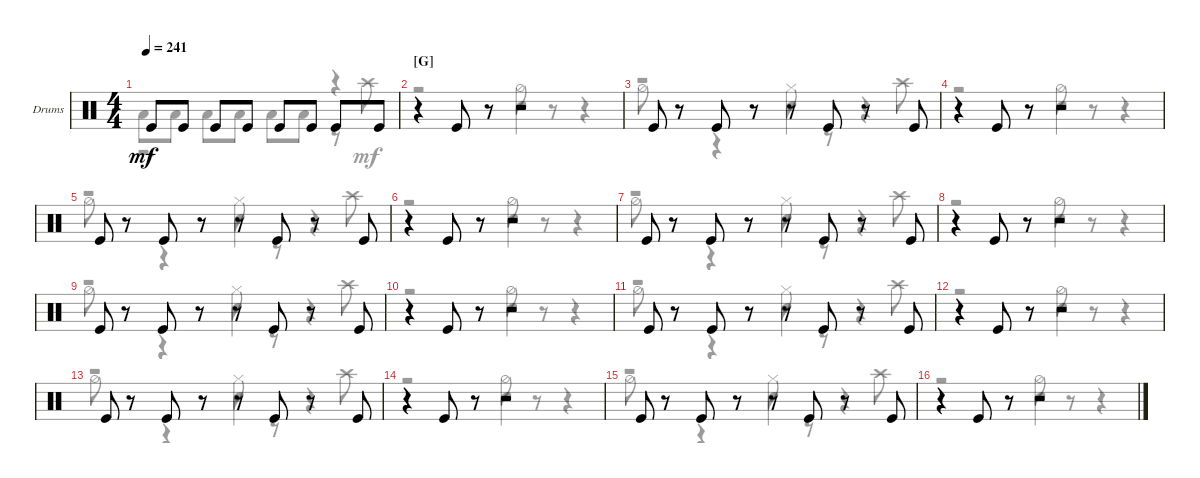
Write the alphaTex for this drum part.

\defaultSystemsLayout 4
\bracketExtendMode groupsimilarinstruments
\firstSystemTrackNameOrientation horizontal
\otherSystemsTrackNameOrientation horizontal
\track ("Drumkit" "Drums") {instrument percussion}
\staff {score}
\articulation defaults
\voice
\ts (4 4)
\tempo 241
\clef neutral
\ks c "Kick (hit)".8{dy mf} "Kick (hit)".8 "Kick (hit)".8 "Kick (hit)".8 "Kick (hit)".8 "Kick (hit)".8 "Kick (hit)".8 "Kick (hit)".8
|
\section ("G" "")
r.4 "Kick (hit)".8 r.8 r.2 |
"Kick (hit)".8 r.8 "Kick (hit)".8 r.8 r.8 "Kick (hit)".8 r.8 "Kick (hit)".8 |
r.4 "Kick (hit)".8 r.8 r.2 |
"Kick (hit)".8 r.8 "Kick (hit)".8 r.8 r.8 "Kick (hit)".8 r.8 "Kick (hit)".8 |
r.4 "Kick (hit)".8 r.8 r.2 |
"Kick (hit)".8 r.8 "Kick (hit)".8 r.8 r.8 "Kick (hit)".8 r.8 "Kick (hit)".8 |
r.4 "Kick (hit)".8 r.8 r.2 |
"Kick (hit)".8 r.8 "Kick (hit)".8 r.8 r.8 "Kick (hit)".8 r.8 "Kick (hit)".8 |
r.4 "Kick (hit)".8 r.8 r.2 |
"Kick (hit)".8 r.8 "Kick (hit)".8 r.8 r.8 "Kick (hit)".8 r.8 "Kick (hit)".8 |
r.4 "Kick (hit)".8 r.8 r.2 |
"Kick (hit)".8 r.8 "Kick (hit)".8 r.8 r.8 "Kick (hit)".8 r.8 "Kick (hit)".8 |
r.4 "Kick (hit)".8 r.8 r.2 |
"Kick (hit)".8 r.8 "Kick (hit)".8 r.8 r.8 "Kick (hit)".8 r.8 "Kick (hit)".8 |
r.4 "Kick (hit)".8 r.8 r.2
\voice
\clef neutral
\ottava regular
\simile none
\ks c "Low Tom (hit)".8{dy mf} "Low Tom (hit)".8 "Low Tom (hit)".8 "Low Tom (hit)".8 "Low Tom (hit)".8 "Low Tom (hit)".8
r.4 |
r.2 "Snare (hit) 2".4 r.4 |
r.2 "Snare (hit) 2".4 r.4 |
r.2 "Snare (hit) 2".4 r.4 |
r.2 "Snare (hit) 2".4 r.4 |
r.2 "Snare (hit) 2".4 r.4 |
r.2 "Snare (hit) 2".4 r.4 |
r.2 "Snare (hit) 2".4 r.4 |
r.2 "Snare (hit) 2".4 r.4 |
r.2 "Snare (hit) 2".4 r.4 |
r.2 "Snare (hit) 2".4 r.4 |
r.2 "Snare (hit) 2".4 r.4 |
r.2 "Snare (hit) 2".4 r.4 |
r.2 "Snare (hit) 2".4 r.4 |
r.2 "Snare (hit) 2".4 r.4 |
r.2 "Snare (hit) 2".4 r.4
\voice
\clef neutral
\ottava regular
\simile none
\ks c
r.2{d dy mf} r.8 "Crash high (hit)".8 |
r.2 "Hi-Hat (half)".8 r.8 r.4 |
"Hi-Hat (half)".8 r.8 r.4 "Hi-Hat (closed)".8 r.8 r.8 "Crash high (hit)".8 |
r.2 "Hi-Hat (half)".8 r.8 r.4 |
"Hi-Hat (half)".8 r.8 r.4 "Hi-Hat (closed)".8 r.8 r.8 "Crash high (hit)".8 |
r.2 "Hi-Hat (half)".8 r.8 r.4 |
"Hi-Hat (half)".8 r.8 r.4 "Hi-Hat (closed)".8 r.8 r.8 "Crash high (hit)".8 |
r.2 "Hi-Hat (half)".8 r.8 r.4 |
"Hi-Hat (half)".8 r.8 r.4 "Hi-Hat (closed)".8 r.8 r.8 "Crash high (hit)".8 |
r.2 "Hi-Hat (half)".8 r.8 r.4 |
"Hi-Hat (half)".8 r.8 r.4 "Hi-Hat (closed)".8 r.8 r.8 "Crash high (hit)".8 |
r.2 "Hi-Hat (half)".8 r.8 r.4 |
"Hi-Hat (half)".8 r.8 r.4 "Hi-Hat (closed)".8 r.8 r.8 "Crash high (hit)".8 |
r.2 "Hi-Hat (half)".8 r.8 r.4 |
"Hi-Hat (half)".8 r.8 r.4 "Hi-Hat (closed)".8 r.8 r.8 "Crash high (hit)".8 |
r.2 "Hi-Hat (half)".8 r.8 r.4
